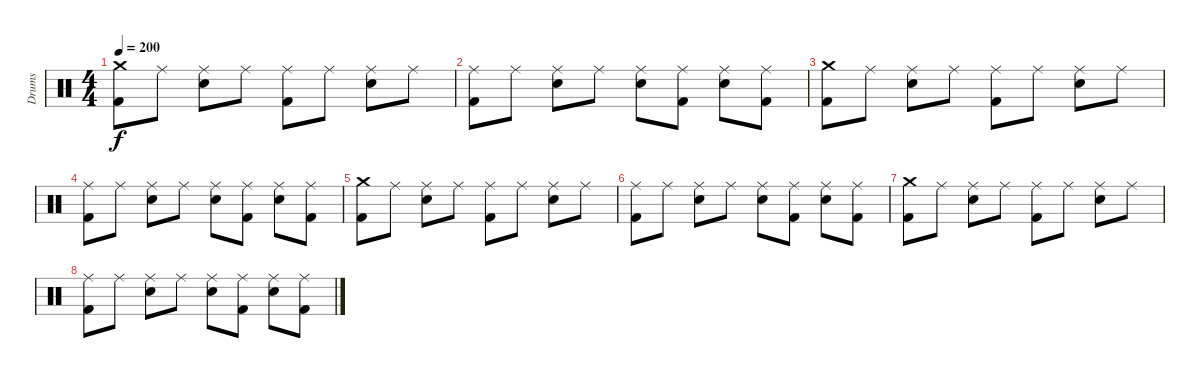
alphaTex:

\track ("Drums" "Drums") {instrument percussion}
\staff {score}
\articulation defaults
\ts (4 4)
\tempo 200
\clef neutral
\ks c
("Crash medium (hit)" "Kick (hit) 2").8{dy f volume 8} "Ride (middle)".8 ("Ride (middle)" "Snare (hit) 2").8 "Ride (middle)".8 ("Ride (middle)" "Kick (hit) 2").8 "Ride (middle)".8 ("Ride (middle)" "Snare (hit) 2").8 "Ride (middle)".8 |
("Ride (middle)" "Kick (hit) 2").8 "Ride (middle)".8 ("Ride (middle)" "Snare (hit) 2").8 "Ride (middle)".8 ("Ride (middle)" "Snare (hit) 2").8 ("Ride (middle)" "Kick (hit) 2").8 ("Ride (middle)" "Snare (hit) 2").8 ("Ride (middle)" "Kick (hit) 2").8 |
("Crash medium (hit)" "Kick (hit) 2").8 "Ride (middle)".8 ("Ride (middle)" "Snare (hit) 2").8 "Ride (middle)".8 ("Ride (middle)" "Kick (hit) 2").8 "Ride (middle)".8 ("Ride (middle)" "Snare (hit) 2").8 "Ride (middle)".8 |
("Ride (middle)" "Kick (hit) 2").8 "Ride (middle)".8 ("Ride (middle)" "Snare (hit) 2").8 "Ride (middle)".8 ("Ride (middle)" "Snare (hit) 2").8 ("Ride (middle)" "Kick (hit) 2").8 ("Ride (middle)" "Snare (hit) 2").8 ("Ride (middle)" "Kick (hit) 2").8 |
("Crash medium (hit)" "Kick (hit) 2").8{volume 0} "Ride (middle)".8 ("Ride (middle)" "Snare (hit) 2").8 "Ride (middle)".8 ("Ride (middle)" "Kick (hit) 2").8 "Ride (middle)".8 ("Ride (middle)" "Snare (hit) 2").8 "Ride (middle)".8 |
("Ride (middle)" "Kick (hit) 2").8 "Ride (middle)".8 ("Ride (middle)" "Snare (hit) 2").8 "Ride (middle)".8 ("Ride (middle)" "Snare (hit) 2").8 ("Ride (middle)" "Kick (hit) 2").8 ("Ride (middle)" "Snare (hit) 2").8 ("Ride (middle)" "Kick (hit) 2").8 |
("Crash medium (hit)" "Kick (hit) 2").8 "Ride (middle)".8 ("Ride (middle)" "Snare (hit) 2").8 "Ride (middle)".8 ("Ride (middle)" "Kick (hit) 2").8 "Ride (middle)".8 ("Ride (middle)" "Snare (hit) 2").8 "Ride (middle)".8 |
("Ride (middle)" "Kick (hit) 2").8 "Ride (middle)".8 ("Ride (middle)" "Snare (hit) 2").8 "Ride (middle)".8 ("Ride (middle)" "Snare (hit) 2").8 ("Ride (middle)" "Kick (hit) 2").8 ("Ride (middle)" "Snare (hit) 2").8 ("Ride (middle)" "Kick (hit) 2").8
